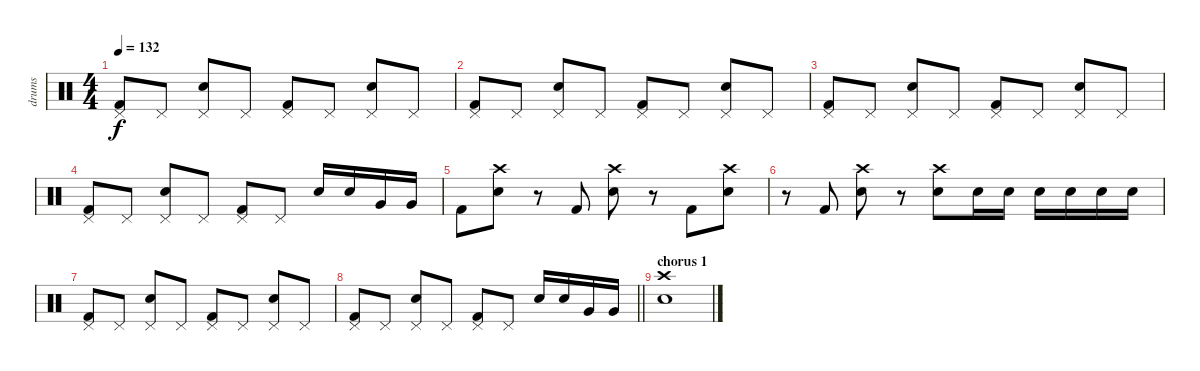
\track ("drums" "drums") {instrument percussion}
\staff {score}
\articulation defaults
\ts (4 4)
\tempo 132
\clef neutral
\ks c
("Kick (hit) 2" "Pedal Hi-Hat (hit)").8{dy f} "Pedal Hi-Hat (hit)".8 ("Electric Snare (hit)" "Pedal Hi-Hat (hit)").8 "Pedal Hi-Hat (hit)".8 ("Kick (hit) 2" "Pedal Hi-Hat (hit)").8 "Pedal Hi-Hat (hit)".8 ("Electric Snare (hit)" "Pedal Hi-Hat (hit)").8 "Pedal Hi-Hat (hit)".8 |
("Kick (hit) 2" "Pedal Hi-Hat (hit)").8 "Pedal Hi-Hat (hit)".8 ("Electric Snare (hit)" "Pedal Hi-Hat (hit)").8 "Pedal Hi-Hat (hit)".8 ("Kick (hit) 2" "Pedal Hi-Hat (hit)").8 "Pedal Hi-Hat (hit)".8 ("Electric Snare (hit)" "Pedal Hi-Hat (hit)").8 "Pedal Hi-Hat (hit)".8 |
("Kick (hit) 2" "Pedal Hi-Hat (hit)").8 "Pedal Hi-Hat (hit)".8 ("Electric Snare (hit)" "Pedal Hi-Hat (hit)").8 "Pedal Hi-Hat (hit)".8 ("Kick (hit) 2" "Pedal Hi-Hat (hit)").8 "Pedal Hi-Hat (hit)".8 ("Electric Snare (hit)" "Pedal Hi-Hat (hit)").8 "Pedal Hi-Hat (hit)".8 |
("Kick (hit) 2" "Pedal Hi-Hat (hit)").8 "Pedal Hi-Hat (hit)".8 ("Electric Snare (hit)" "Pedal Hi-Hat (hit)").8 "Pedal Hi-Hat (hit)".8 ("Kick (hit) 2" "Pedal Hi-Hat (hit)").8 "Pedal Hi-Hat (hit)".8 "Electric Snare (hit)".16 "Electric Snare (hit)".16 "Very Low Tom (hit)".16 "Very Low Tom (hit)".16 |
"Kick (hit) 2".8 ("Electric Snare (hit)" "Crash high (hit)").8 r.8 "Kick (hit) 2".8 ("Electric Snare (hit)" "Crash high (hit)").8 r.8 "Kick (hit) 2".8 ("Electric Snare (hit)" "Crash high (hit)").8 |
r.8 "Kick (hit) 2".8 ("Electric Snare (hit)" "Crash high (hit)").8 r.8 ("Electric Snare (hit)" "Crash high (hit)").8 "Electric Snare (hit)".16 "Electric Snare (hit)".16 "Electric Snare (hit)".16 "Electric Snare (hit)".16 "Electric Snare (hit)".16 "Electric Snare (hit)".16 |
("Kick (hit) 2" "Pedal Hi-Hat (hit)").8 "Pedal Hi-Hat (hit)".8 ("Electric Snare (hit)" "Pedal Hi-Hat (hit)").8 "Pedal Hi-Hat (hit)".8 ("Kick (hit) 2" "Pedal Hi-Hat (hit)").8 "Pedal Hi-Hat (hit)".8 ("Electric Snare (hit)" "Pedal Hi-Hat (hit)").8 "Pedal Hi-Hat (hit)".8 |
\barLineRight lightlight
("Kick (hit) 2" "Pedal Hi-Hat (hit)").8 "Pedal Hi-Hat (hit)".8 ("Electric Snare (hit)" "Pedal Hi-Hat (hit)").8 "Pedal Hi-Hat (hit)".8 ("Kick (hit) 2" "Pedal Hi-Hat (hit)").8 "Pedal Hi-Hat (hit)".8 "Electric Snare (hit)".16 "Electric Snare (hit)".16 "Very Low Tom (hit)".16 "Very Low Tom (hit)".16 |
\section ("" "chorus 1")
("Electric Snare (hit)" "Crash high (hit)").1
